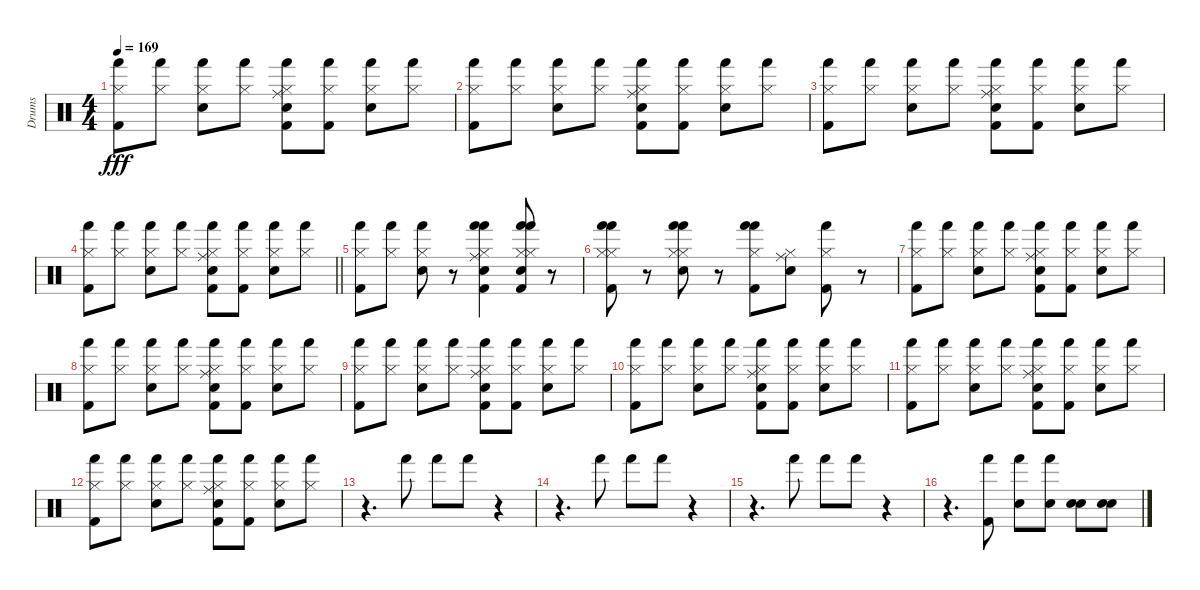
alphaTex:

\track ("Drums" "Drums") {instrument percussion}
\staff {score}
\articulation defaults
\ts (4 4)
\tempo 169
\clef neutral
\ks c
("Kick (hit) 2" "Hand (hit)" "Hi-Hat (closed)").8{dy fff} ("Hand (hit)" "Hi-Hat (closed)").8 ("Snare (hit) 2" "Hand (hit)" "Hi-Hat (closed)").8 ("Hand (hit)" "Hi-Hat (closed)").8 ("Kick (hit) 2" "Hand (hit)" "Electric Snare (hit)" "Ride (middle)" "Hi-Hat (closed)").8 ("Kick (hit) 2" "Hand (hit)" "Hi-Hat (closed)").8 ("Snare (hit) 2" "Hand (hit)" "Hi-Hat (closed)").8 ("Hand (hit)" "Hi-Hat (closed)").8 |
("Kick (hit) 2" "Hand (hit)" "Hi-Hat (closed)").8 ("Hand (hit)" "Hi-Hat (closed)").8 ("Snare (hit) 2" "Hand (hit)" "Hi-Hat (closed)").8 ("Hand (hit)" "Hi-Hat (closed)").8 ("Kick (hit) 2" "Hand (hit)" "Ride (middle)" "Electric Snare (hit)" "Hi-Hat (closed)").8 ("Kick (hit) 2" "Hand (hit)" "Hi-Hat (closed)").8 ("Snare (hit) 2" "Hand (hit)" "Hi-Hat (closed)").8 ("Hand (hit)" "Hi-Hat (closed)").8 |
("Kick (hit) 2" "Hand (hit)" "Hi-Hat (closed)").8 ("Hand (hit)" "Hi-Hat (closed)").8 ("Snare (hit) 2" "Hand (hit)" "Hi-Hat (closed)").8 ("Hand (hit)" "Hi-Hat (closed)").8 ("Kick (hit) 2" "Hand (hit)" "Electric Snare (hit)" "Ride (middle)" "Hi-Hat (closed)").8 ("Kick (hit) 2" "Hand (hit)" "Hi-Hat (closed)").8 ("Snare (hit) 2" "Hand (hit)" "Hi-Hat (closed)").8 ("Hand (hit)" "Hi-Hat (closed)").8 |
\barLineRight lightlight
("Kick (hit) 2" "Hand (hit)" "Hi-Hat (closed)").8 ("Hand (hit)" "Hi-Hat (closed)").8 ("Snare (hit) 2" "Hand (hit)" "Hi-Hat (closed)").8 ("Hand (hit)" "Hi-Hat (closed)").8 ("Kick (hit) 2" "Hand (hit)" "Ride (middle)" "Electric Snare (hit)" "Hi-Hat (closed)").8 ("Kick (hit) 2" "Hand (hit)" "Hi-Hat (closed)").8 ("Snare (hit) 2" "Hand (hit)" "Hi-Hat (closed)").8 ("Hand (hit)" "Hi-Hat (closed)").8 |
("Kick (hit) 2" "Hand (hit)" "Hi-Hat (closed)").8 ("Hand (hit)" "Hi-Hat (closed)").8 ("Snare (hit) 2" "Hand (hit)" "Hi-Hat (closed)").8 r.8 ("Hand (hit)" "Hi-Hat (closed)" "Kick (hit) 2" "Hand (hit)" "Electric Snare (hit)" "Ride (middle)").4 ("Kick (hit) 2" "Hand (hit)" "Hi-Hat (closed)" "Snare (hit) 2" "Hand (hit)" "Hi-Hat (closed)").8 r.8 |
("Hand (hit)" "Hi-Hat (closed)" "Kick (hit) 2" "Hand (hit)" "Hi-Hat (closed)").8 r.8 ("Hand (hit)" "Hi-Hat (closed)" "Snare (hit) 2" "Hand (hit)" "Hi-Hat (closed)").8 r.8 ("Hand (hit)" "Hi-Hat (closed)" "Kick (hit) 2" "Hand (hit)").8 ("Ride (middle)" "Electric Snare (hit)" "Hi-Hat (closed)").8 ("Kick (hit) 2" "Hand (hit)" "Hi-Hat (closed)").8 r.8 |
("Kick (hit) 2" "Hand (hit)" "Hi-Hat (closed)").8 ("Hand (hit)" "Hi-Hat (closed)").8 ("Snare (hit) 2" "Hand (hit)" "Hi-Hat (closed)").8 ("Hand (hit)" "Hi-Hat (closed)").8 ("Kick (hit) 2" "Hand (hit)" "Electric Snare (hit)" "Ride (middle)" "Hi-Hat (closed)").8 ("Kick (hit) 2" "Hand (hit)" "Hi-Hat (closed)").8 ("Snare (hit) 2" "Hand (hit)" "Hi-Hat (closed)").8 ("Hand (hit)" "Hi-Hat (closed)").8 |
("Kick (hit) 2" "Hand (hit)" "Hi-Hat (closed)").8 ("Hand (hit)" "Hi-Hat (closed)").8 ("Snare (hit) 2" "Hand (hit)" "Hi-Hat (closed)").8 ("Hand (hit)" "Hi-Hat (closed)").8 ("Kick (hit) 2" "Hand (hit)" "Electric Snare (hit)" "Ride (middle)" "Hi-Hat (closed)").8 ("Kick (hit) 2" "Hand (hit)" "Hi-Hat (closed)").8 ("Snare (hit) 2" "Hand (hit)" "Hi-Hat (closed)").8 ("Hand (hit)" "Hi-Hat (closed)").8 |
("Kick (hit) 2" "Hand (hit)" "Hi-Hat (closed)").8 ("Hand (hit)" "Hi-Hat (closed)").8 ("Snare (hit) 2" "Hand (hit)" "Hi-Hat (closed)").8 ("Hand (hit)" "Hi-Hat (closed)").8 ("Kick (hit) 2" "Hand (hit)" "Electric Snare (hit)" "Ride (middle)" "Hi-Hat (closed)").8 ("Kick (hit) 2" "Hand (hit)" "Hi-Hat (closed)").8 ("Snare (hit) 2" "Hand (hit)" "Hi-Hat (closed)").8 ("Hand (hit)" "Hi-Hat (closed)").8 |
("Kick (hit) 2" "Hand (hit)" "Hi-Hat (closed)").8 ("Hand (hit)" "Hi-Hat (closed)").8 ("Snare (hit) 2" "Hand (hit)" "Hi-Hat (closed)").8 ("Hand (hit)" "Hi-Hat (closed)").8 ("Kick (hit) 2" "Hand (hit)" "Electric Snare (hit)" "Ride (middle)" "Hi-Hat (closed)").8 ("Kick (hit) 2" "Hand (hit)" "Hi-Hat (closed)").8 ("Snare (hit) 2" "Hand (hit)" "Hi-Hat (closed)").8 ("Hand (hit)" "Hi-Hat (closed)").8 |
("Kick (hit) 2" "Hand (hit)" "Hi-Hat (closed)").8 ("Hand (hit)" "Hi-Hat (closed)").8 ("Snare (hit) 2" "Hand (hit)" "Hi-Hat (closed)").8 ("Hand (hit)" "Hi-Hat (closed)").8 ("Kick (hit) 2" "Hand (hit)" "Electric Snare (hit)" "Ride (middle)" "Hi-Hat (closed)").8 ("Kick (hit) 2" "Hand (hit)" "Hi-Hat (closed)").8 ("Snare (hit) 2" "Hand (hit)" "Hi-Hat (closed)").8 ("Hand (hit)" "Hi-Hat (closed)").8 |
("Kick (hit) 2" "Hand (hit)" "Hi-Hat (closed)").8 ("Hand (hit)" "Hi-Hat (closed)").8 ("Snare (hit) 2" "Hand (hit)" "Hi-Hat (closed)").8 ("Hand (hit)" "Hi-Hat (closed)").8 ("Kick (hit) 2" "Hand (hit)" "Electric Snare (hit)" "Ride (middle)" "Hi-Hat (closed)").8 ("Kick (hit) 2" "Hand (hit)" "Hi-Hat (closed)").8 ("Snare (hit) 2" "Hand (hit)" "Hi-Hat (closed)").8 ("Hand (hit)" "Hi-Hat (closed)").8 |
r.4{d} "Hand (hit)".8 "Hand (hit)".8 "Hand (hit)".8 r.4 |
r.4{d} "Hand (hit)".8 "Hand (hit)".8 "Hand (hit)".8 r.4 |
r.4{d} "Hand (hit)".8 "Hand (hit)".8 "Hand (hit)".8 r.4 |
r.4{d} ("Kick (hit) 2" "Hand (hit)").8 ("Snare (hit) 2" "Hand (hit)").8 ("Snare (hit) 2" "Hand (hit)").8 ("Electric Snare (hit)" "Snare (hit) 2").8 ("Electric Snare (hit)" "Snare (hit) 2").8
